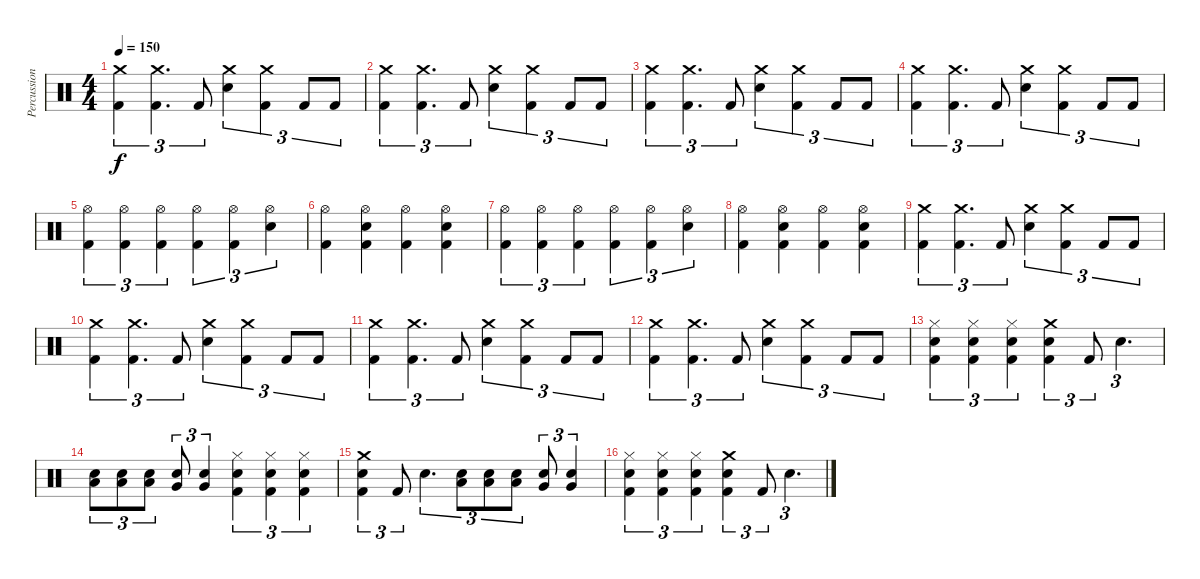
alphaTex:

\track ("Percussion" "Percussion") {instrument percussion}
\staff {score}
\articulation defaults
\ts (4 4)
\tempo 150
\clef neutral
\ks c
("Crash medium (hit)" "Kick (hit) 2").4{tu (3 2) dy f} ("Crash medium (hit)" "Kick (hit) 2").4{d tu (3 2)} "Kick (hit) 2".8{tu (3 2)} ("Crash medium (hit)" "Electric Snare (hit)").4{tu (3 2)} ("Crash medium (hit)" "Kick (hit) 2").4{tu (3 2)} "Kick (hit) 2".8{tu (3 2)} "Kick (hit) 2".8{tu (3 2)} |
("Crash medium (hit)" "Kick (hit) 2").4{tu (3 2)} ("Crash medium (hit)" "Kick (hit) 2").4{d tu (3 2)} "Kick (hit) 2".8{tu (3 2)} ("Crash medium (hit)" "Electric Snare (hit)").4{tu (3 2)} ("Crash medium (hit)" "Kick (hit) 2").4{tu (3 2)} "Kick (hit) 2".8{tu (3 2)} "Kick (hit) 2".8{tu (3 2)} |
("Crash medium (hit)" "Kick (hit) 2").4{tu (3 2)} ("Crash medium (hit)" "Kick (hit) 2").4{d tu (3 2)} "Kick (hit) 2".8{tu (3 2)} ("Crash medium (hit)" "Electric Snare (hit)").4{tu (3 2)} ("Crash medium (hit)" "Kick (hit) 2").4{tu (3 2)} "Kick (hit) 2".8{tu (3 2)} "Kick (hit) 2".8{tu (3 2)} |
("Crash medium (hit)" "Kick (hit) 2").4{tu (3 2)} ("Crash medium (hit)" "Kick (hit) 2").4{d tu (3 2)} "Kick (hit) 2".8{tu (3 2)} ("Crash medium (hit)" "Electric Snare (hit)").4{tu (3 2)} ("Crash medium (hit)" "Kick (hit) 2").4{tu (3 2)} "Kick (hit) 2".8{tu (3 2)} "Kick (hit) 2".8{tu (3 2)} |
("Hi-Hat (open)" "Kick (hit) 2").4{tu (3 2)} ("Hi-Hat (open)" "Kick (hit) 2").4{tu (3 2)} ("Hi-Hat (open)" "Kick (hit) 2").4{tu (3 2)} ("Hi-Hat (open)" "Kick (hit) 2").4{tu (3 2)} ("Hi-Hat (open)" "Kick (hit) 2").4{tu (3 2)} ("Hi-Hat (open)" "Electric Snare (hit)").4{tu (3 2)} |
("Hi-Hat (open)" "Kick (hit) 2").4 ("Hi-Hat (open)" "Electric Snare (hit)" "Kick (hit) 2").4 ("Hi-Hat (open)" "Kick (hit) 2").4 ("Hi-Hat (open)" "Electric Snare (hit)" "Kick (hit) 2").4 |
("Hi-Hat (open)" "Kick (hit) 2").4{tu (3 2)} ("Hi-Hat (open)" "Kick (hit) 2").4{tu (3 2)} ("Hi-Hat (open)" "Kick (hit) 2").4{tu (3 2)} ("Hi-Hat (open)" "Kick (hit) 2").4{tu (3 2)} ("Hi-Hat (open)" "Kick (hit) 2").4{tu (3 2)} ("Hi-Hat (open)" "Electric Snare (hit)").4{tu (3 2)} |
("Hi-Hat (open)" "Kick (hit) 2").4 ("Hi-Hat (open)" "Electric Snare (hit)" "Kick (hit) 2").4 ("Hi-Hat (open)" "Kick (hit) 2").4 ("Hi-Hat (open)" "Electric Snare (hit)" "Kick (hit) 2").4 |
("Crash medium (hit)" "Kick (hit) 2").4{tu (3 2)} ("Crash medium (hit)" "Kick (hit) 2").4{d tu (3 2)} "Kick (hit) 2".8{tu (3 2)} ("Crash medium (hit)" "Electric Snare (hit)").4{tu (3 2)} ("Crash medium (hit)" "Kick (hit) 2").4{tu (3 2)} "Kick (hit) 2".8{tu (3 2)} "Kick (hit) 2".8{tu (3 2)} |
("Crash medium (hit)" "Kick (hit) 2").4{tu (3 2)} ("Crash medium (hit)" "Kick (hit) 2").4{d tu (3 2)} "Kick (hit) 2".8{tu (3 2)} ("Crash medium (hit)" "Electric Snare (hit)").4{tu (3 2)} ("Crash medium (hit)" "Kick (hit) 2").4{tu (3 2)} "Kick (hit) 2".8{tu (3 2)} "Kick (hit) 2".8{tu (3 2)} |
("Crash medium (hit)" "Kick (hit) 2").4{tu (3 2)} ("Crash medium (hit)" "Kick (hit) 2").4{d tu (3 2)} "Kick (hit) 2".8{tu (3 2)} ("Crash medium (hit)" "Electric Snare (hit)").4{tu (3 2)} ("Crash medium (hit)" "Kick (hit) 2").4{tu (3 2)} "Kick (hit) 2".8{tu (3 2)} "Kick (hit) 2".8{tu (3 2)} |
("Crash medium (hit)" "Kick (hit) 2").4{tu (3 2)} ("Crash medium (hit)" "Kick (hit) 2").4{d tu (3 2)} "Kick (hit) 2".8{tu (3 2)} ("Crash medium (hit)" "Electric Snare (hit)").4{tu (3 2)} ("Crash medium (hit)" "Kick (hit) 2").4{tu (3 2)} "Kick (hit) 2".8{tu (3 2)} "Kick (hit) 2".8{tu (3 2)} |
("Hi-Hat (closed)" "Electric Snare (hit)" "Kick (hit) 2").4{tu (3 2)} ("Hi-Hat (closed)" "Electric Snare (hit)" "Kick (hit) 2").4{tu (3 2)} ("Hi-Hat (closed)" "Electric Snare (hit)" "Kick (hit) 2").4{tu (3 2)} ("Crash medium (hit)" "Electric Snare (hit)" "Kick (hit) 2").4{tu (3 2)} "Kick (hit) 2".8{tu (3 2)} "Electric Snare (hit)".4{d tu (3 2)} |
("Low Tom (hit)" "Electric Snare (hit)").8{tu (3 2)} ("Low Tom (hit)" "Electric Snare (hit)").8{tu (3 2)} ("Low Tom (hit)" "Electric Snare (hit)").8{tu (3 2)} ("Very Low Tom (hit)" "Electric Snare (hit)").8{tu (3 2)} ("Very Low Tom (hit)" "Electric Snare (hit)").4{tu (3 2)} ("Hi-Hat (closed)" "Electric Snare (hit)" "Kick (hit) 2").4{tu (3 2)} ("Hi-Hat (closed)" "Electric Snare (hit)" "Kick (hit) 2").4{tu (3 2)} ("Hi-Hat (closed)" "Electric Snare (hit)" "Kick (hit) 2").4{tu (3 2)} |
("Crash medium (hit)" "Electric Snare (hit)" "Kick (hit) 2").4{tu (3 2)} "Kick (hit) 2".8{tu (3 2)} "Electric Snare (hit)".4{d tu (3 2)} ("Low Tom (hit)" "Electric Snare (hit)").8{tu (3 2)} ("Low Tom (hit)" "Electric Snare (hit)").8{tu (3 2)} ("Low Tom (hit)" "Electric Snare (hit)").8{tu (3 2)} ("Very Low Tom (hit)" "Electric Snare (hit)").8{tu (3 2)} ("Very Low Tom (hit)" "Electric Snare (hit)").4{tu (3 2)} |
("Hi-Hat (closed)" "Electric Snare (hit)" "Kick (hit) 2").4{tu (3 2)} ("Hi-Hat (closed)" "Electric Snare (hit)" "Kick (hit) 2").4{tu (3 2)} ("Hi-Hat (closed)" "Electric Snare (hit)" "Kick (hit) 2").4{tu (3 2)} ("Crash medium (hit)" "Electric Snare (hit)" "Kick (hit) 2").4{tu (3 2)} "Kick (hit) 2".8{tu (3 2)} "Electric Snare (hit)".4{d tu (3 2)}
